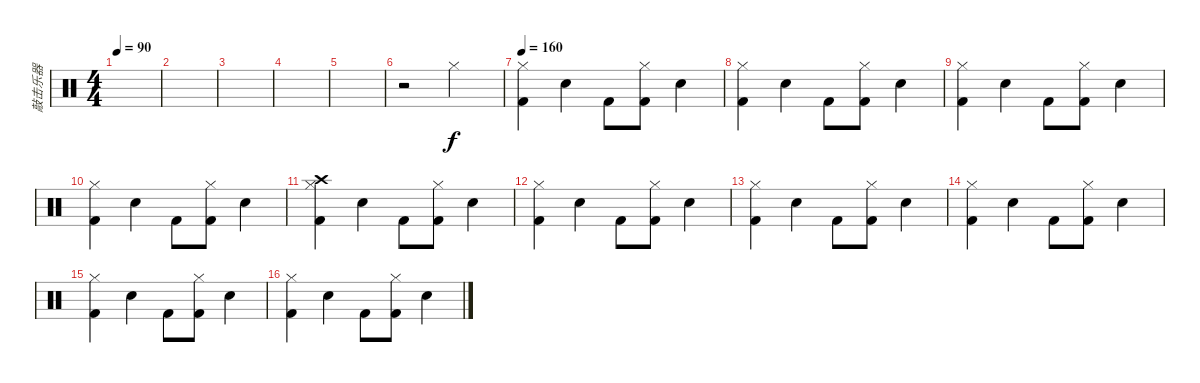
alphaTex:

\track ("敲击乐器" "敲击乐器") {instrument percussion}
\staff {score}
\articulation defaults
\ts (4 4)
\tempo 90
\clef neutral
\ks c
|
|
|
|
|
r.2 "Hi-Hat (closed)".2 |
\tempo 160
("Hi-Hat (closed)" "Kick (hit) 2").4 "Electric Snare (hit)".4 "Kick (hit) 2".8 ("Hi-Hat (closed)" "Kick (hit) 2").8 "Electric Snare (hit)".4 |
("Hi-Hat (closed)" "Kick (hit) 2").4 "Electric Snare (hit)".4 "Kick (hit) 2".8 ("Hi-Hat (closed)" "Kick (hit) 2").8 "Electric Snare (hit)".4 |
("Hi-Hat (closed)" "Kick (hit) 2").4 "Electric Snare (hit)".4 "Kick (hit) 2".8 ("Hi-Hat (closed)" "Kick (hit) 2").8 "Electric Snare (hit)".4 |
("Hi-Hat (closed)" "Kick (hit) 2").4 "Electric Snare (hit)".4 "Kick (hit) 2".8 ("Hi-Hat (closed)" "Kick (hit) 2").8 "Electric Snare (hit)".4 |
("Hi-Hat (closed)" "Crash high (hit)" "Kick (hit) 2").4 "Electric Snare (hit)".4 "Kick (hit) 2".8 ("Hi-Hat (closed)" "Kick (hit) 2").8 "Electric Snare (hit)".4 |
("Hi-Hat (closed)" "Kick (hit) 2").4 "Electric Snare (hit)".4 "Kick (hit) 2".8 ("Hi-Hat (closed)" "Kick (hit) 2").8 "Electric Snare (hit)".4 |
("Hi-Hat (closed)" "Kick (hit) 2").4 "Electric Snare (hit)".4 "Kick (hit) 2".8 ("Hi-Hat (closed)" "Kick (hit) 2").8 "Electric Snare (hit)".4 |
("Hi-Hat (closed)" "Kick (hit) 2").4 "Electric Snare (hit)".4 "Kick (hit) 2".8 ("Hi-Hat (closed)" "Kick (hit) 2").8 "Electric Snare (hit)".4 |
("Hi-Hat (closed)" "Kick (hit) 2").4 "Electric Snare (hit)".4 "Kick (hit) 2".8 ("Hi-Hat (closed)" "Kick (hit) 2").8 "Electric Snare (hit)".4 |
("Hi-Hat (closed)" "Kick (hit) 2").4 "Electric Snare (hit)".4 "Kick (hit) 2".8 ("Hi-Hat (closed)" "Kick (hit) 2").8 "Electric Snare (hit)".4
